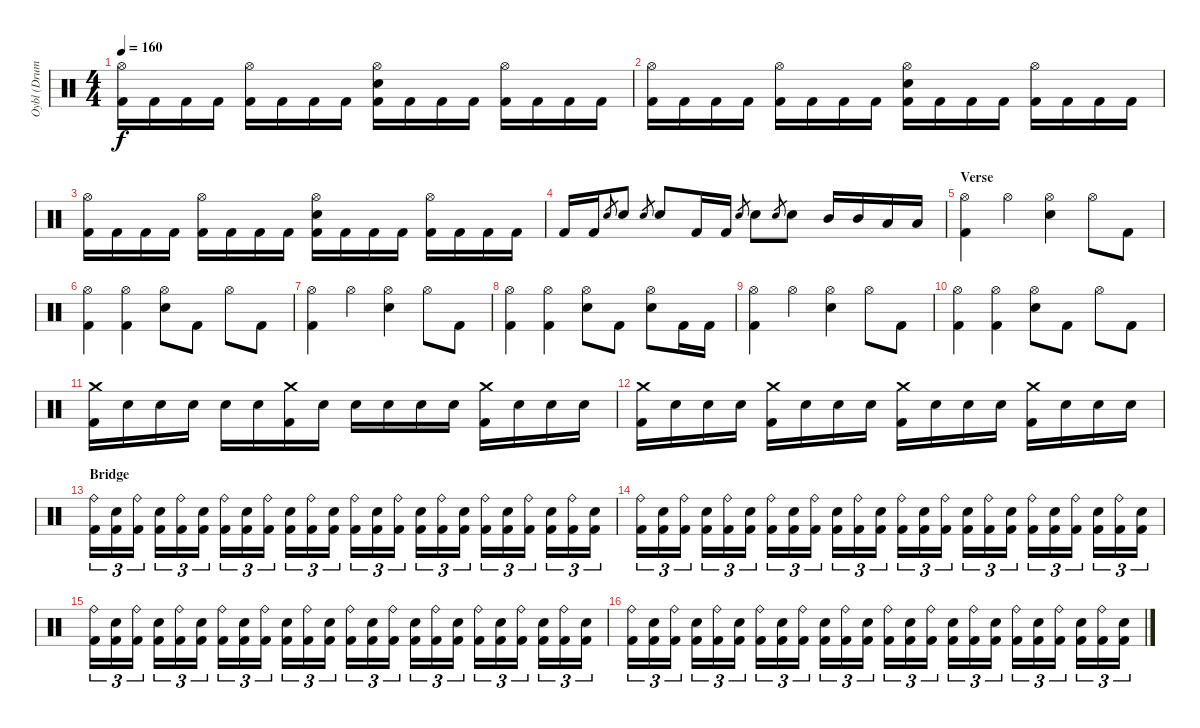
\track ("Oybl (Drums)" "Oybl (Drum") {instrument percussion}
\staff {score}
\articulation defaults
\ts (4 4)
\tempo 160
\clef neutral
\ks c
("Hi-Hat (open)" "Kick (hit) 2").16{dy f} "Kick (hit) 2".16 "Kick (hit) 2".16 "Kick (hit) 2".16 ("Hi-Hat (open)" "Kick (hit) 2").16 "Kick (hit) 2".16 "Kick (hit) 2".16 "Kick (hit) 2".16 ("Hi-Hat (open)" "Snare (hit) 2" "Kick (hit) 2").16 "Kick (hit) 2".16 "Kick (hit) 2".16 "Kick (hit) 2".16 ("Hi-Hat (open)" "Kick (hit) 2").16 "Kick (hit) 2".16 "Kick (hit) 2".16 "Kick (hit) 2".16 |
("Hi-Hat (open)" "Kick (hit) 2").16 "Kick (hit) 2".16 "Kick (hit) 2".16 "Kick (hit) 2".16 ("Hi-Hat (open)" "Kick (hit) 2").16 "Kick (hit) 2".16 "Kick (hit) 2".16 "Kick (hit) 2".16 ("Hi-Hat (open)" "Snare (hit) 2" "Kick (hit) 2").16 "Kick (hit) 2".16 "Kick (hit) 2".16 "Kick (hit) 2".16 ("Hi-Hat (open)" "Kick (hit) 2").16 "Kick (hit) 2".16 "Kick (hit) 2".16 "Kick (hit) 2".16 |
("Hi-Hat (open)" "Kick (hit) 2").16 "Kick (hit) 2".16 "Kick (hit) 2".16 "Kick (hit) 2".16 ("Hi-Hat (open)" "Kick (hit) 2").16 "Kick (hit) 2".16 "Kick (hit) 2".16 "Kick (hit) 2".16 ("Hi-Hat (open)" "Snare (hit) 2" "Kick (hit) 2").16 "Kick (hit) 2".16 "Kick (hit) 2".16 "Kick (hit) 2".16 ("Hi-Hat (open)" "Kick (hit) 2").16 "Kick (hit) 2".16 "Kick (hit) 2".16 "Kick (hit) 2".16 |
"Kick (hit) 2".16 "Kick (hit) 2".16 "Snare (hit) 2".8{gr} "Snare (hit) 2".8 "Snare (hit) 2".8{gr} "Snare (hit) 2".8 "Kick (hit) 2".16 "Kick (hit) 2".16 "Snare (hit) 2".8{gr} "Snare (hit) 2".8 "Snare (hit) 2".8{gr} "Snare (hit) 2".8 "Mid Tom (hit)".16 "Mid Tom (hit)".16 "Low Tom (hit)".16 "Low Tom (hit)".16 |
\section ("" "Verse")
("Hi-Hat (open)" "Kick (hit) 2").4 "Hi-Hat (open)".4 ("Hi-Hat (open)" "Snare (hit) 2").4 "Hi-Hat (open)".8 "Kick (hit) 2".8 |
("Hi-Hat (open)" "Kick (hit) 2").4 ("Hi-Hat (open)" "Kick (hit) 2").4 ("Hi-Hat (open)" "Snare (hit) 2").8 "Kick (hit) 2".8 "Hi-Hat (open)".8 "Kick (hit) 2".8 |
("Hi-Hat (open)" "Kick (hit) 2").4 "Hi-Hat (open)".4 ("Hi-Hat (open)" "Snare (hit) 2").4 "Hi-Hat (open)".8 "Kick (hit) 2".8 |
("Hi-Hat (open)" "Kick (hit) 2").4 ("Hi-Hat (open)" "Kick (hit) 2").4 ("Hi-Hat (open)" "Snare (hit) 2").8 "Kick (hit) 2".8 ("Hi-Hat (open)" "Snare (hit) 2").8 "Kick (hit) 2".16 "Kick (hit) 2".16 |
("Hi-Hat (open)" "Kick (hit) 2").4 "Hi-Hat (open)".4 ("Hi-Hat (open)" "Snare (hit) 2").4 "Hi-Hat (open)".8 "Kick (hit) 2".8 |
("Hi-Hat (open)" "Kick (hit) 2").4 ("Hi-Hat (open)" "Kick (hit) 2").4 ("Hi-Hat (open)" "Snare (hit) 2").8 "Kick (hit) 2".8 "Hi-Hat (open)".8 "Kick (hit) 2".8 |
("Crash medium (hit)" "Kick (hit) 2").16 "Snare (hit) 2".16 "Snare (hit) 2".16 "Snare (hit) 2".16 "Snare (hit) 2".16 "Snare (hit) 2".16 ("Crash medium (hit)" "Kick (hit) 2").16 "Snare (hit) 2".16 "Snare (hit) 2".16 "Snare (hit) 2".16 "Snare (hit) 2".16 "Snare (hit) 2".16 ("Crash medium (hit)" "Kick (hit) 2").16 "Snare (hit) 2".16 "Snare (hit) 2".16 "Snare (hit) 2".16 |
("Crash medium (hit)" "Kick (hit) 2").16 "Snare (hit) 2".16 "Snare (hit) 2".16 "Snare (hit) 2".16 ("Crash medium (hit)" "Kick (hit) 2").16 "Snare (hit) 2".16 "Snare (hit) 2".16 "Snare (hit) 2".16 ("Crash medium (hit)" "Kick (hit) 2").16 "Snare (hit) 2".16 "Snare (hit) 2".16 "Snare (hit) 2".16 ("Crash medium (hit)" "Kick (hit) 2").16 "Snare (hit) 2".16 "Snare (hit) 2".16 "Snare (hit) 2".16 |
\section ("" "Bridge")
("Ride (bell)" "Kick (hit) 2").16{tu (3 2)} ("Snare (hit) 2" "Kick (hit) 2").16{tu (3 2)} ("Ride (bell)" "Kick (hit) 2").16{tu (3 2)} ("Snare (hit) 2" "Kick (hit) 2").16{tu (3 2)} ("Ride (bell)" "Kick (hit) 2").16{tu (3 2)} ("Snare (hit) 2" "Kick (hit) 2").16{tu (3 2)} ("Ride (bell)" "Kick (hit) 2").16{tu (3 2)} ("Snare (hit) 2" "Kick (hit) 2").16{tu (3 2)} ("Ride (bell)" "Kick (hit) 2").16{tu (3 2)} ("Snare (hit) 2" "Kick (hit) 2").16{tu (3 2)} ("Ride (bell)" "Kick (hit) 2").16{tu (3 2)} ("Snare (hit) 2" "Kick (hit) 2").16{tu (3 2)} ("Ride (bell)" "Kick (hit) 2").16{tu (3 2)} ("Snare (hit) 2" "Kick (hit) 2").16{tu (3 2)} ("Ride (bell)" "Kick (hit) 2").16{tu (3 2)} ("Snare (hit) 2" "Kick (hit) 2").16{tu (3 2)} ("Ride (bell)" "Kick (hit) 2").16{tu (3 2)} ("Snare (hit) 2" "Kick (hit) 2").16{tu (3 2)} ("Ride (bell)" "Kick (hit) 2").16{tu (3 2)} ("Snare (hit) 2" "Kick (hit) 2").16{tu (3 2)} ("Ride (bell)" "Kick (hit) 2").16{tu (3 2)} ("Snare (hit) 2" "Kick (hit) 2").16{tu (3 2)} ("Ride (bell)" "Kick (hit) 2").16{tu (3 2)} ("Snare (hit) 2" "Kick (hit) 2").16{tu (3 2)} |
("Ride (bell)" "Kick (hit) 2").16{tu (3 2)} ("Snare (hit) 2" "Kick (hit) 2").16{tu (3 2)} ("Ride (bell)" "Kick (hit) 2").16{tu (3 2)} ("Snare (hit) 2" "Kick (hit) 2").16{tu (3 2)} ("Ride (bell)" "Kick (hit) 2").16{tu (3 2)} ("Snare (hit) 2" "Kick (hit) 2").16{tu (3 2)} ("Ride (bell)" "Kick (hit) 2").16{tu (3 2)} ("Snare (hit) 2" "Kick (hit) 2").16{tu (3 2)} ("Ride (bell)" "Kick (hit) 2").16{tu (3 2)} ("Snare (hit) 2" "Kick (hit) 2").16{tu (3 2)} ("Ride (bell)" "Kick (hit) 2").16{tu (3 2)} ("Snare (hit) 2" "Kick (hit) 2").16{tu (3 2)} ("Ride (bell)" "Kick (hit) 2").16{tu (3 2)} ("Snare (hit) 2" "Kick (hit) 2").16{tu (3 2)} ("Ride (bell)" "Kick (hit) 2").16{tu (3 2)} ("Snare (hit) 2" "Kick (hit) 2").16{tu (3 2)} ("Ride (bell)" "Kick (hit) 2").16{tu (3 2)} ("Snare (hit) 2" "Kick (hit) 2").16{tu (3 2)} ("Ride (bell)" "Kick (hit) 2").16{tu (3 2)} ("Snare (hit) 2" "Kick (hit) 2").16{tu (3 2)} ("Ride (bell)" "Kick (hit) 2").16{tu (3 2)} ("Snare (hit) 2" "Kick (hit) 2").16{tu (3 2)} ("Ride (bell)" "Kick (hit) 2").16{tu (3 2)} ("Snare (hit) 2" "Kick (hit) 2").16{tu (3 2)} |
("Ride (bell)" "Kick (hit) 2").16{tu (3 2)} ("Snare (hit) 2" "Kick (hit) 2").16{tu (3 2)} ("Ride (bell)" "Kick (hit) 2").16{tu (3 2)} ("Snare (hit) 2" "Kick (hit) 2").16{tu (3 2)} ("Ride (bell)" "Kick (hit) 2").16{tu (3 2)} ("Snare (hit) 2" "Kick (hit) 2").16{tu (3 2)} ("Ride (bell)" "Kick (hit) 2").16{tu (3 2)} ("Snare (hit) 2" "Kick (hit) 2").16{tu (3 2)} ("Ride (bell)" "Kick (hit) 2").16{tu (3 2)} ("Snare (hit) 2" "Kick (hit) 2").16{tu (3 2)} ("Ride (bell)" "Kick (hit) 2").16{tu (3 2)} ("Snare (hit) 2" "Kick (hit) 2").16{tu (3 2)} ("Ride (bell)" "Kick (hit) 2").16{tu (3 2)} ("Snare (hit) 2" "Kick (hit) 2").16{tu (3 2)} ("Ride (bell)" "Kick (hit) 2").16{tu (3 2)} ("Snare (hit) 2" "Kick (hit) 2").16{tu (3 2)} ("Ride (bell)" "Kick (hit) 2").16{tu (3 2)} ("Snare (hit) 2" "Kick (hit) 2").16{tu (3 2)} ("Ride (bell)" "Kick (hit) 2").16{tu (3 2)} ("Snare (hit) 2" "Kick (hit) 2").16{tu (3 2)} ("Ride (bell)" "Kick (hit) 2").16{tu (3 2)} ("Snare (hit) 2" "Kick (hit) 2").16{tu (3 2)} ("Ride (bell)" "Kick (hit) 2").16{tu (3 2)} ("Snare (hit) 2" "Kick (hit) 2").16{tu (3 2)} |
("Ride (bell)" "Kick (hit) 2").16{tu (3 2)} ("Snare (hit) 2" "Kick (hit) 2").16{tu (3 2)} ("Ride (bell)" "Kick (hit) 2").16{tu (3 2)} ("Snare (hit) 2" "Kick (hit) 2").16{tu (3 2)} ("Ride (bell)" "Kick (hit) 2").16{tu (3 2)} ("Snare (hit) 2" "Kick (hit) 2").16{tu (3 2)} ("Ride (bell)" "Kick (hit) 2").16{tu (3 2)} ("Snare (hit) 2" "Kick (hit) 2").16{tu (3 2)} ("Ride (bell)" "Kick (hit) 2").16{tu (3 2)} ("Snare (hit) 2" "Kick (hit) 2").16{tu (3 2)} ("Ride (bell)" "Kick (hit) 2").16{tu (3 2)} ("Snare (hit) 2" "Kick (hit) 2").16{tu (3 2)} ("Ride (bell)" "Kick (hit) 2").16{tu (3 2)} ("Snare (hit) 2" "Kick (hit) 2").16{tu (3 2)} ("Ride (bell)" "Kick (hit) 2").16{tu (3 2)} ("Snare (hit) 2" "Kick (hit) 2").16{tu (3 2)} ("Ride (bell)" "Kick (hit) 2").16{tu (3 2)} ("Snare (hit) 2" "Kick (hit) 2").16{tu (3 2)} ("Ride (bell)" "Kick (hit) 2").16{tu (3 2)} ("Snare (hit) 2" "Kick (hit) 2").16{tu (3 2)} ("Ride (bell)" "Kick (hit) 2").16{tu (3 2)} ("Snare (hit) 2" "Kick (hit) 2").16{tu (3 2)} ("Ride (bell)" "Kick (hit) 2").16{tu (3 2)} ("Snare (hit) 2" "Kick (hit) 2").16{tu (3 2)}
